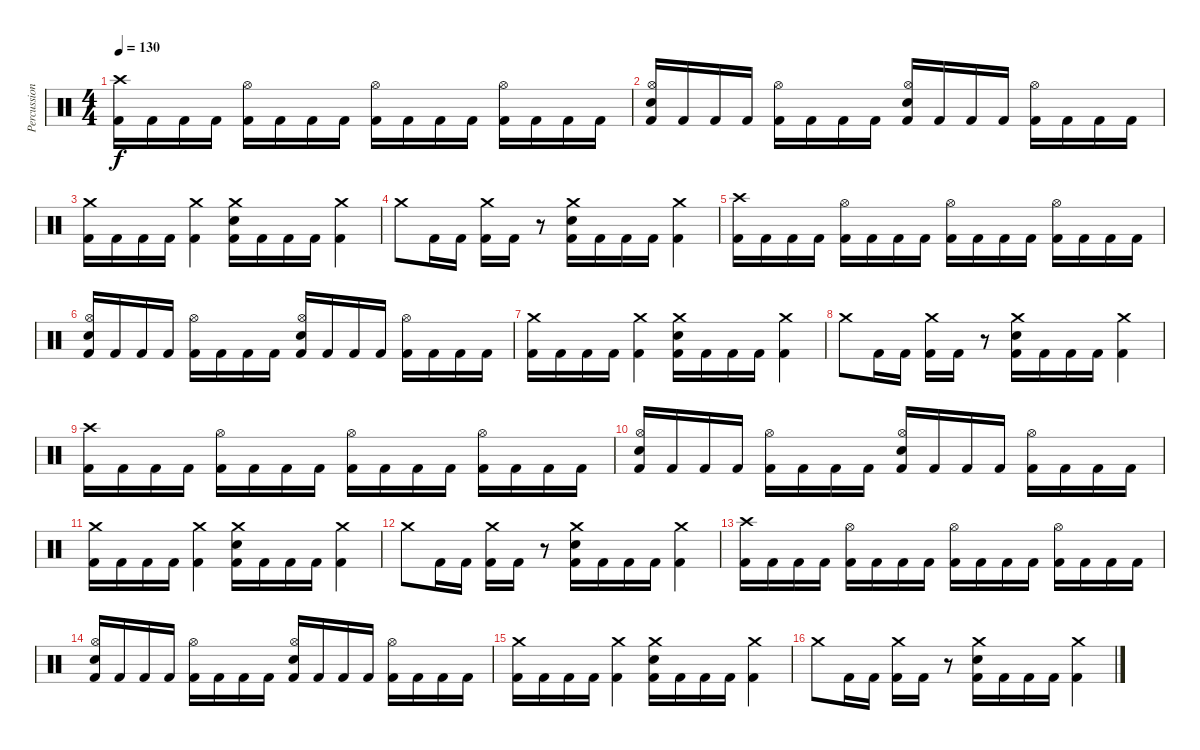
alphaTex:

\track ("Percussion" "Percussion") {instrument percussion}
\staff {score}
\articulation defaults
\ts (4 4)
\tempo 130
\clef neutral
\ks c
("Crash high (hit)" "Kick (hit) 2").16{dy f} "Kick (hit) 2".16 "Kick (hit) 2".16 "Kick (hit) 2".16 ("Hi-Hat (open)" "Kick (hit) 2").16 "Kick (hit) 2".16 "Kick (hit) 2".16 "Kick (hit) 2".16 ("Hi-Hat (open)" "Kick (hit) 2").16 "Kick (hit) 2".16 "Kick (hit) 2".16 "Kick (hit) 2".16 ("Hi-Hat (open)" "Kick (hit) 2").16 "Kick (hit) 2".16 "Kick (hit) 2".16 "Kick (hit) 2".16 |
("Hi-Hat (open)" "Electric Snare (hit)" "Kick (hit) 2").16 "Kick (hit) 2".16 "Kick (hit) 2".16 "Kick (hit) 2".16 ("Hi-Hat (open)" "Kick (hit) 2").16 "Kick (hit) 2".16 "Kick (hit) 2".16 "Kick (hit) 2".16 ("Hi-Hat (open)" "Electric Snare (hit)" "Kick (hit) 2").16 "Kick (hit) 2".16 "Kick (hit) 2".16 "Kick (hit) 2".16 ("Hi-Hat (open)" "Kick (hit) 2").16 "Kick (hit) 2".16 "Kick (hit) 2".16 "Kick (hit) 2".16 |
("Crash medium (hit)" "Kick (hit) 2").16 "Kick (hit) 2".16 "Kick (hit) 2".16 "Kick (hit) 2".16 ("Crash medium (hit)" "Kick (hit) 2").4 ("Crash medium (hit)" "Electric Snare (hit)" "Kick (hit) 2").16 "Kick (hit) 2".16 "Kick (hit) 2".16 "Kick (hit) 2".16 ("Crash medium (hit)" "Kick (hit) 2").4 |
"Crash medium (hit)".8 "Kick (hit) 2".16 "Kick (hit) 2".16 ("Crash medium (hit)" "Kick (hit) 2").16 "Kick (hit) 2".16 r.8 ("Crash medium (hit)" "Electric Snare (hit)" "Kick (hit) 2").16 "Kick (hit) 2".16 "Kick (hit) 2".16 "Kick (hit) 2".16 ("Crash medium (hit)" "Kick (hit) 2").4 |
("Crash high (hit)" "Kick (hit) 2").16 "Kick (hit) 2".16 "Kick (hit) 2".16 "Kick (hit) 2".16 ("Hi-Hat (open)" "Kick (hit) 2").16 "Kick (hit) 2".16 "Kick (hit) 2".16 "Kick (hit) 2".16 ("Hi-Hat (open)" "Kick (hit) 2").16 "Kick (hit) 2".16 "Kick (hit) 2".16 "Kick (hit) 2".16 ("Hi-Hat (open)" "Kick (hit) 2").16 "Kick (hit) 2".16 "Kick (hit) 2".16 "Kick (hit) 2".16 |
("Hi-Hat (open)" "Electric Snare (hit)" "Kick (hit) 2").16 "Kick (hit) 2".16 "Kick (hit) 2".16 "Kick (hit) 2".16 ("Hi-Hat (open)" "Kick (hit) 2").16 "Kick (hit) 2".16 "Kick (hit) 2".16 "Kick (hit) 2".16 ("Hi-Hat (open)" "Electric Snare (hit)" "Kick (hit) 2").16 "Kick (hit) 2".16 "Kick (hit) 2".16 "Kick (hit) 2".16 ("Hi-Hat (open)" "Kick (hit) 2").16 "Kick (hit) 2".16 "Kick (hit) 2".16 "Kick (hit) 2".16 |
("Crash medium (hit)" "Kick (hit) 2").16 "Kick (hit) 2".16 "Kick (hit) 2".16 "Kick (hit) 2".16 ("Crash medium (hit)" "Kick (hit) 2").4 ("Crash medium (hit)" "Electric Snare (hit)" "Kick (hit) 2").16 "Kick (hit) 2".16 "Kick (hit) 2".16 "Kick (hit) 2".16 ("Crash medium (hit)" "Kick (hit) 2").4 |
"Crash medium (hit)".8 "Kick (hit) 2".16 "Kick (hit) 2".16 ("Crash medium (hit)" "Kick (hit) 2").16 "Kick (hit) 2".16 r.8 ("Crash medium (hit)" "Electric Snare (hit)" "Kick (hit) 2").16 "Kick (hit) 2".16 "Kick (hit) 2".16 "Kick (hit) 2".16 ("Crash medium (hit)" "Kick (hit) 2").4 |
("Crash high (hit)" "Kick (hit) 2").16 "Kick (hit) 2".16 "Kick (hit) 2".16 "Kick (hit) 2".16 ("Hi-Hat (open)" "Kick (hit) 2").16 "Kick (hit) 2".16 "Kick (hit) 2".16 "Kick (hit) 2".16 ("Hi-Hat (open)" "Kick (hit) 2").16 "Kick (hit) 2".16 "Kick (hit) 2".16 "Kick (hit) 2".16 ("Hi-Hat (open)" "Kick (hit) 2").16 "Kick (hit) 2".16 "Kick (hit) 2".16 "Kick (hit) 2".16 |
("Hi-Hat (open)" "Electric Snare (hit)" "Kick (hit) 2").16 "Kick (hit) 2".16 "Kick (hit) 2".16 "Kick (hit) 2".16 ("Hi-Hat (open)" "Kick (hit) 2").16 "Kick (hit) 2".16 "Kick (hit) 2".16 "Kick (hit) 2".16 ("Hi-Hat (open)" "Electric Snare (hit)" "Kick (hit) 2").16 "Kick (hit) 2".16 "Kick (hit) 2".16 "Kick (hit) 2".16 ("Hi-Hat (open)" "Kick (hit) 2").16 "Kick (hit) 2".16 "Kick (hit) 2".16 "Kick (hit) 2".16 |
("Crash medium (hit)" "Kick (hit) 2").16 "Kick (hit) 2".16 "Kick (hit) 2".16 "Kick (hit) 2".16 ("Crash medium (hit)" "Kick (hit) 2").4 ("Crash medium (hit)" "Electric Snare (hit)" "Kick (hit) 2").16 "Kick (hit) 2".16 "Kick (hit) 2".16 "Kick (hit) 2".16 ("Crash medium (hit)" "Kick (hit) 2").4 |
"Crash medium (hit)".8 "Kick (hit) 2".16 "Kick (hit) 2".16 ("Crash medium (hit)" "Kick (hit) 2").16 "Kick (hit) 2".16 r.8 ("Crash medium (hit)" "Electric Snare (hit)" "Kick (hit) 2").16 "Kick (hit) 2".16 "Kick (hit) 2".16 "Kick (hit) 2".16 ("Crash medium (hit)" "Kick (hit) 2").4 |
("Crash high (hit)" "Kick (hit) 2").16 "Kick (hit) 2".16 "Kick (hit) 2".16 "Kick (hit) 2".16 ("Hi-Hat (open)" "Kick (hit) 2").16 "Kick (hit) 2".16 "Kick (hit) 2".16 "Kick (hit) 2".16 ("Hi-Hat (open)" "Kick (hit) 2").16 "Kick (hit) 2".16 "Kick (hit) 2".16 "Kick (hit) 2".16 ("Hi-Hat (open)" "Kick (hit) 2").16 "Kick (hit) 2".16 "Kick (hit) 2".16 "Kick (hit) 2".16 |
("Hi-Hat (open)" "Electric Snare (hit)" "Kick (hit) 2").16 "Kick (hit) 2".16 "Kick (hit) 2".16 "Kick (hit) 2".16 ("Hi-Hat (open)" "Kick (hit) 2").16 "Kick (hit) 2".16 "Kick (hit) 2".16 "Kick (hit) 2".16 ("Hi-Hat (open)" "Electric Snare (hit)" "Kick (hit) 2").16 "Kick (hit) 2".16 "Kick (hit) 2".16 "Kick (hit) 2".16 ("Hi-Hat (open)" "Kick (hit) 2").16 "Kick (hit) 2".16 "Kick (hit) 2".16 "Kick (hit) 2".16 |
("Crash medium (hit)" "Kick (hit) 2").16 "Kick (hit) 2".16 "Kick (hit) 2".16 "Kick (hit) 2".16 ("Crash medium (hit)" "Kick (hit) 2").4 ("Crash medium (hit)" "Electric Snare (hit)" "Kick (hit) 2").16 "Kick (hit) 2".16 "Kick (hit) 2".16 "Kick (hit) 2".16 ("Crash medium (hit)" "Kick (hit) 2").4 |
"Crash medium (hit)".8 "Kick (hit) 2".16 "Kick (hit) 2".16 ("Crash medium (hit)" "Kick (hit) 2").16 "Kick (hit) 2".16 r.8 ("Crash medium (hit)" "Electric Snare (hit)" "Kick (hit) 2").16 "Kick (hit) 2".16 "Kick (hit) 2".16 "Kick (hit) 2".16 ("Crash medium (hit)" "Kick (hit) 2").4
